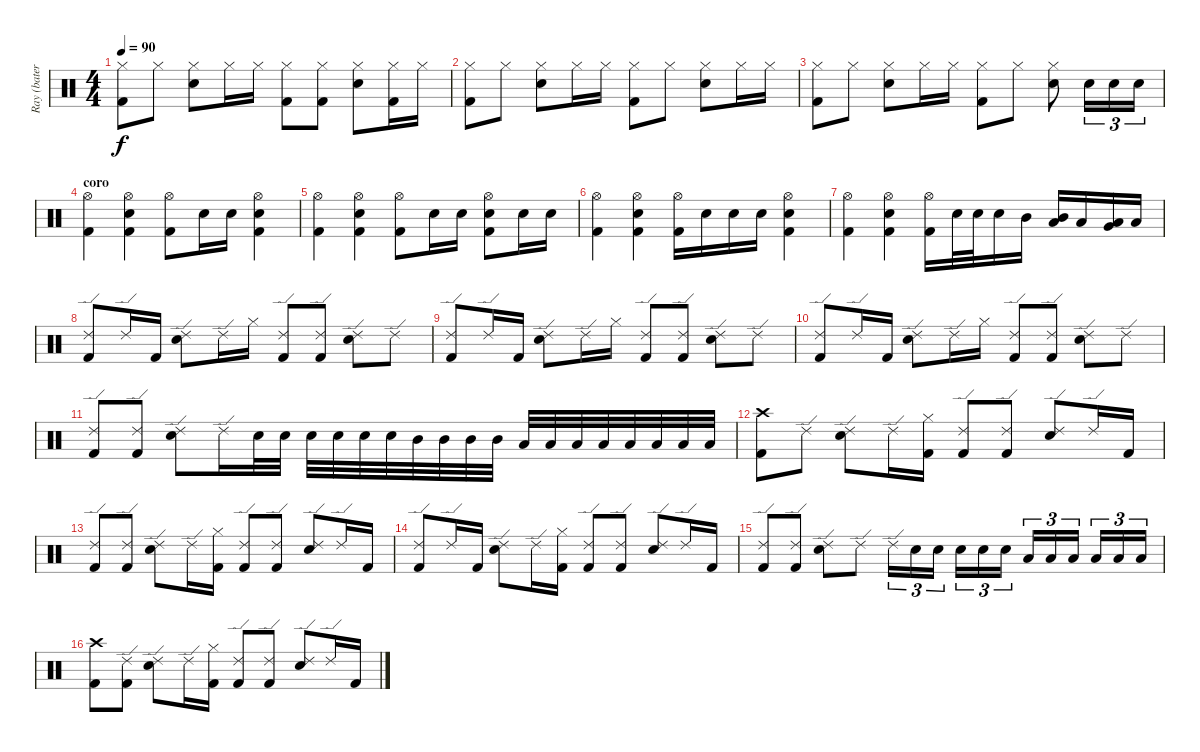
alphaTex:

\track ("Ray (batería)" "Ray (bater") {instrument percussion}
\staff {score}
\articulation defaults
\ts (4 4)
\tempo 90
\clef neutral
\ks c
("Hi-Hat (closed)" "Kick (hit) 2").8{dy f} "Hi-Hat (closed)".8 ("Hi-Hat (closed)" "Snare (hit) 2").8 "Hi-Hat (closed)".16 "Hi-Hat (closed)".16 ("Hi-Hat (closed)" "Kick (hit) 2").8 ("Hi-Hat (closed)" "Kick (hit) 2").8 ("Hi-Hat (closed)" "Snare (hit) 2").8 ("Hi-Hat (closed)" "Kick (hit) 2").16 "Hi-Hat (closed)".16 |
("Hi-Hat (closed)" "Kick (hit) 2").8 "Hi-Hat (closed)".8 ("Hi-Hat (closed)" "Snare (hit) 2").8 "Hi-Hat (closed)".16 "Hi-Hat (closed)".16 ("Hi-Hat (closed)" "Kick (hit) 2").8 "Hi-Hat (closed)".8 ("Hi-Hat (closed)" "Snare (hit) 2").8 "Hi-Hat (closed)".16 "Hi-Hat (closed)".16 |
("Hi-Hat (closed)" "Kick (hit) 2").8 "Hi-Hat (closed)".8 ("Hi-Hat (closed)" "Snare (hit) 2").8 "Hi-Hat (closed)".16 "Hi-Hat (closed)".16 ("Hi-Hat (closed)" "Kick (hit) 2").8 "Hi-Hat (closed)".8 ("Hi-Hat (closed)" "Snare (hit) 2").8 "Snare (hit) 2".16{tu (3 2)} "Snare (hit) 2".16{tu (3 2)} "Snare (hit) 2".16{tu (3 2)} |
\section ("" "coro")
("Hi-Hat (open)" "Kick (hit) 2").4 ("Hi-Hat (open)" "Snare (hit) 2" "Kick (hit) 2").4 ("Hi-Hat (open)" "Kick (hit) 2").8 "Snare (hit) 2".16 "Snare (hit) 2".16 ("Hi-Hat (open)" "Snare (hit) 2" "Kick (hit) 2").4 |
("Hi-Hat (open)" "Kick (hit) 2").4 ("Hi-Hat (open)" "Snare (hit) 2" "Kick (hit) 2").4 ("Hi-Hat (open)" "Kick (hit) 2").8 "Snare (hit) 2".16 "Snare (hit) 2".16 ("Hi-Hat (open)" "Snare (hit) 2" "Kick (hit) 2").8 "Snare (hit) 2".16 "Snare (hit) 2".16 |
("Hi-Hat (open)" "Kick (hit) 2").4 ("Hi-Hat (open)" "Snare (hit) 2" "Kick (hit) 2").4 ("Hi-Hat (open)" "Kick (hit) 2").16 "Snare (hit) 2".16 "Snare (hit) 2".16 "Snare (hit) 2".16 ("Hi-Hat (open)" "Snare (hit) 2" "Kick (hit) 2").4 |
("Hi-Hat (open)" "Kick (hit) 2").4 ("Hi-Hat (open)" "Snare (hit) 2" "Kick (hit) 2").4 ("Hi-Hat (open)" "Kick (hit) 2").16 "Snare (hit) 2".32 "Snare (hit) 2".32 "Snare (hit) 2".16 "Mid Tom (hit)".16 ("Mid Tom (hit)" "Low Tom (hit)").16 "Low Tom (hit)".16 ("Low Tom (hit)" "Very Low Tom (hit)").16 "Low Floor Tom (hit)".16 |
("Ride (edge) 2" "Kick (hit) 2").8 "Ride (edge) 2".16 "Kick (hit) 2".16 ("Ride (edge) 2" "Snare (hit) 2").8 "Ride (edge) 2".16 "Hi-Hat (closed)".16 ("Ride (edge) 2" "Kick (hit) 2").8 ("Ride (edge) 2" "Kick (hit) 2").8 ("Ride (edge) 2" "Snare (hit) 2").8 "Ride (edge) 2".8 |
("Ride (edge) 2" "Kick (hit) 2").8 "Ride (edge) 2".16 "Kick (hit) 2".16 ("Ride (edge) 2" "Snare (hit) 2").8 "Ride (edge) 2".16 "Hi-Hat (closed)".16 ("Ride (edge) 2" "Kick (hit) 2").8 ("Ride (edge) 2" "Kick (hit) 2").8 ("Ride (edge) 2" "Snare (hit) 2").8 "Ride (edge) 2".8 |
("Ride (edge) 2" "Kick (hit) 2").8 "Ride (edge) 2".16 "Kick (hit) 2".16 ("Ride (edge) 2" "Snare (hit) 2").8 "Ride (edge) 2".16 "Hi-Hat (closed)".16 ("Ride (edge) 2" "Kick (hit) 2").8 ("Ride (edge) 2" "Kick (hit) 2").8 ("Ride (edge) 2" "Snare (hit) 2").8 "Ride (edge) 2".8 |
("Ride (edge) 2" "Kick (hit) 2").8 ("Ride (edge) 2" "Kick (hit) 2").8 ("Ride (edge) 2" "Snare (hit) 2").8 "Ride (edge) 2".16 "Snare (hit) 2".32 "Snare (hit) 2".32 "Snare (hit) 2".32 "Snare (hit) 2".32 "Snare (hit) 2".32 "Snare (hit) 2".32 "Mid Tom (hit)".32 "Mid Tom (hit)".32 "Mid Tom (hit)".32 "Mid Tom (hit)".32 "Low Tom (hit)".32 "Low Tom (hit)".32 "Low Tom (hit)".32 "Low Tom (hit)".32 "Low Floor Tom (hit)".32 "Low Floor Tom (hit)".32 "Low Floor Tom (hit)".32 "Low Floor Tom (hit)".32 |
("Crash high (hit)" "Kick (hit) 2").8 "Ride (edge) 2".8 ("Ride (edge) 2" "Snare (hit) 2").8 "Ride (edge) 2".16 ("Hi-Hat (closed)" "Kick (hit) 2").16 ("Ride (edge) 2" "Kick (hit) 2").8 ("Ride (edge) 2" "Kick (hit) 2").8 ("Ride (edge) 2" "Snare (hit) 2").8 "Ride (edge) 2".16 "Kick (hit) 2".16 |
("Ride (edge) 2" "Kick (hit) 2").8 ("Ride (edge) 2" "Kick (hit) 2").8 ("Ride (edge) 2" "Snare (hit) 2").8 "Ride (edge) 2".16 ("Hi-Hat (closed)" "Kick (hit) 2").16 ("Ride (edge) 2" "Kick (hit) 2").8 ("Ride (edge) 2" "Kick (hit) 2").8 ("Ride (edge) 2" "Snare (hit) 2").8 "Ride (edge) 2".16 "Kick (hit) 2".16 |
("Ride (edge) 2" "Kick (hit) 2").8 "Ride (edge) 2".16 "Kick (hit) 2".16 ("Ride (edge) 2" "Snare (hit) 2").8 "Ride (edge) 2".16 ("Hi-Hat (closed)" "Kick (hit) 2").16 ("Ride (edge) 2" "Kick (hit) 2").8 ("Ride (edge) 2" "Kick (hit) 2").8 ("Ride (edge) 2" "Snare (hit) 2").8 "Ride (edge) 2".16 "Kick (hit) 2".16 |
("Ride (edge) 2" "Kick (hit) 2").8 ("Ride (edge) 2" "Kick (hit) 2").8 ("Ride (edge) 2" "Snare (hit) 2").8 "Ride (edge) 2".8 "Ride (edge) 2".16{tu (3 2)} "Snare (hit) 2".16{tu (3 2)} "Snare (hit) 2".16{tu (3 2)} "Snare (hit) 2".16{tu (3 2)} "Snare (hit) 2".16{tu (3 2)} "Snare (hit) 2".16{tu (3 2)} "Low Tom (hit)".16{tu (3 2)} "Low Tom (hit)".16{tu (3 2)} "Low Tom (hit)".16{tu (3 2)} "Low Floor Tom (hit)".16{tu (3 2)} "Low Floor Tom (hit)".16{tu (3 2)} "Low Floor Tom (hit)".16{tu (3 2)} |
("Crash high (hit)" "Kick (hit) 2").8 ("Ride (edge) 2" "Kick (hit) 2").8 ("Ride (edge) 2" "Snare (hit) 2").8 "Ride (edge) 2".16 ("Hi-Hat (closed)" "Kick (hit) 2").16 ("Ride (edge) 2" "Kick (hit) 2").8 ("Ride (edge) 2" "Kick (hit) 2").8 ("Ride (edge) 2" "Snare (hit) 2").8 "Ride (edge) 2".16 "Kick (hit) 2".16
